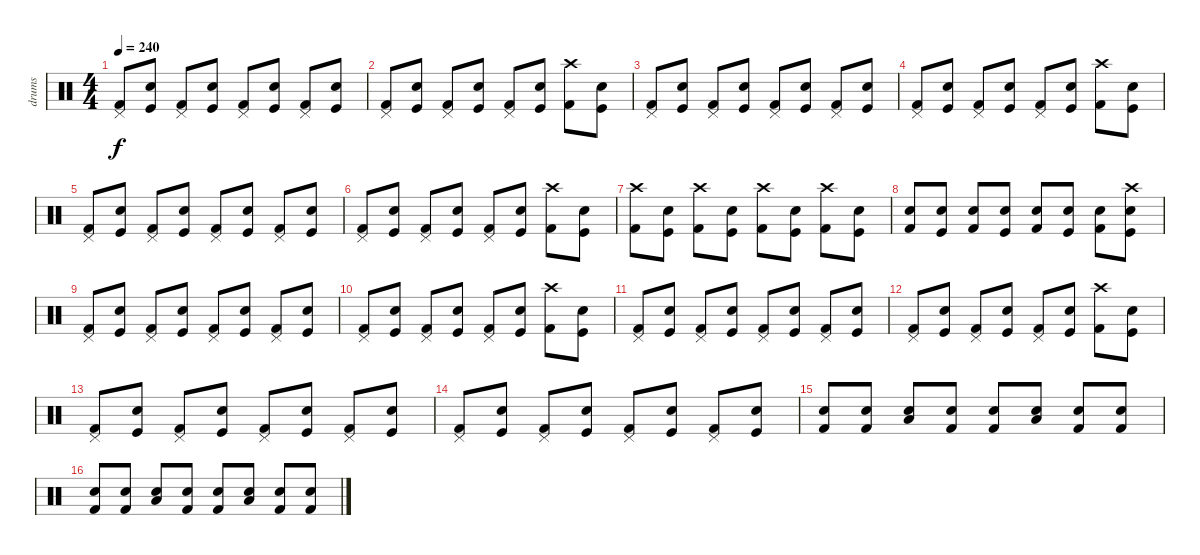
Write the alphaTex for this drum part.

\track ("drums" "drums") {instrument percussion}
\staff {score}
\articulation defaults
\ts (4 4)
\tempo 240
\clef neutral
\ks c
("Pedal Hi-Hat (hit)" "Kick (hit) 2").8{dy f} ("Electric Snare (hit)" "Kick (hit)").8 ("Pedal Hi-Hat (hit)" "Kick (hit) 2").8 ("Electric Snare (hit)" "Kick (hit)").8 ("Pedal Hi-Hat (hit)" "Kick (hit) 2").8 ("Electric Snare (hit)" "Kick (hit)").8 ("Pedal Hi-Hat (hit)" "Kick (hit) 2").8 ("Electric Snare (hit)" "Kick (hit)").8 |
("Pedal Hi-Hat (hit)" "Kick (hit) 2").8 ("Electric Snare (hit)" "Kick (hit)").8 ("Pedal Hi-Hat (hit)" "Kick (hit) 2").8 ("Electric Snare (hit)" "Kick (hit)").8 ("Pedal Hi-Hat (hit)" "Kick (hit) 2").8 ("Electric Snare (hit)" "Kick (hit)").8 ("Crash high (hit)" "Kick (hit) 2").8 ("Electric Snare (hit)" "Kick (hit)").8 |
("Pedal Hi-Hat (hit)" "Kick (hit) 2").8 ("Electric Snare (hit)" "Kick (hit)").8 ("Pedal Hi-Hat (hit)" "Kick (hit) 2").8 ("Electric Snare (hit)" "Kick (hit)").8 ("Pedal Hi-Hat (hit)" "Kick (hit) 2").8 ("Electric Snare (hit)" "Kick (hit)").8 ("Pedal Hi-Hat (hit)" "Kick (hit) 2").8 ("Electric Snare (hit)" "Kick (hit)").8 |
("Pedal Hi-Hat (hit)" "Kick (hit) 2").8 ("Electric Snare (hit)" "Kick (hit)").8 ("Pedal Hi-Hat (hit)" "Kick (hit) 2").8 ("Electric Snare (hit)" "Kick (hit)").8 ("Pedal Hi-Hat (hit)" "Kick (hit) 2").8 ("Electric Snare (hit)" "Kick (hit)").8 ("Crash high (hit)" "Kick (hit) 2").8 ("Electric Snare (hit)" "Kick (hit)").8 |
("Pedal Hi-Hat (hit)" "Kick (hit) 2").8 ("Electric Snare (hit)" "Kick (hit)").8 ("Pedal Hi-Hat (hit)" "Kick (hit) 2").8 ("Electric Snare (hit)" "Kick (hit)").8 ("Pedal Hi-Hat (hit)" "Kick (hit) 2").8 ("Electric Snare (hit)" "Kick (hit)").8 ("Pedal Hi-Hat (hit)" "Kick (hit) 2").8 ("Electric Snare (hit)" "Kick (hit)").8 |
("Pedal Hi-Hat (hit)" "Kick (hit) 2").8 ("Electric Snare (hit)" "Kick (hit)").8 ("Pedal Hi-Hat (hit)" "Kick (hit) 2").8 ("Electric Snare (hit)" "Kick (hit)").8 ("Pedal Hi-Hat (hit)" "Kick (hit) 2").8 ("Electric Snare (hit)" "Kick (hit)").8 ("Crash high (hit)" "Kick (hit) 2").8 ("Electric Snare (hit)" "Kick (hit)").8 |
("Crash high (hit)" "Kick (hit) 2").8 ("Electric Snare (hit)" "Kick (hit)").8 ("Crash high (hit)" "Kick (hit) 2").8 ("Electric Snare (hit)" "Kick (hit)").8 ("Crash high (hit)" "Kick (hit) 2").8 ("Electric Snare (hit)" "Kick (hit)").8 ("Crash high (hit)" "Kick (hit) 2").8 ("Electric Snare (hit)" "Kick (hit)").8 |
("Snare (hit) 2" "Kick (hit) 2").8 ("Electric Snare (hit)" "Kick (hit)").8 ("Snare (hit) 2" "Kick (hit) 2").8 ("Electric Snare (hit)" "Kick (hit)").8 ("Snare (hit) 2" "Kick (hit) 2").8 ("Electric Snare (hit)" "Kick (hit)").8 ("Snare (hit) 2" "Kick (hit) 2").8 ("Crash high (hit)" "Electric Snare (hit)" "Kick (hit)").8 |
("Pedal Hi-Hat (hit)" "Kick (hit) 2").8 ("Electric Snare (hit)" "Kick (hit)").8 ("Pedal Hi-Hat (hit)" "Kick (hit) 2").8 ("Electric Snare (hit)" "Kick (hit)").8 ("Pedal Hi-Hat (hit)" "Kick (hit) 2").8 ("Electric Snare (hit)" "Kick (hit)").8 ("Pedal Hi-Hat (hit)" "Kick (hit) 2").8 ("Electric Snare (hit)" "Kick (hit)").8 |
("Pedal Hi-Hat (hit)" "Kick (hit) 2").8 ("Electric Snare (hit)" "Kick (hit)").8 ("Pedal Hi-Hat (hit)" "Kick (hit) 2").8 ("Electric Snare (hit)" "Kick (hit)").8 ("Pedal Hi-Hat (hit)" "Kick (hit) 2").8 ("Electric Snare (hit)" "Kick (hit)").8 ("Crash high (hit)" "Kick (hit) 2").8 ("Electric Snare (hit)" "Kick (hit)").8 |
("Pedal Hi-Hat (hit)" "Kick (hit) 2").8 ("Electric Snare (hit)" "Kick (hit)").8 ("Pedal Hi-Hat (hit)" "Kick (hit) 2").8 ("Electric Snare (hit)" "Kick (hit)").8 ("Pedal Hi-Hat (hit)" "Kick (hit) 2").8 ("Electric Snare (hit)" "Kick (hit)").8 ("Pedal Hi-Hat (hit)" "Kick (hit) 2").8 ("Electric Snare (hit)" "Kick (hit)").8 |
("Pedal Hi-Hat (hit)" "Kick (hit) 2").8 ("Electric Snare (hit)" "Kick (hit)").8 ("Pedal Hi-Hat (hit)" "Kick (hit) 2").8 ("Electric Snare (hit)" "Kick (hit)").8 ("Pedal Hi-Hat (hit)" "Kick (hit) 2").8 ("Electric Snare (hit)" "Kick (hit)").8 ("Crash high (hit)" "Kick (hit) 2").8 ("Electric Snare (hit)" "Kick (hit)").8 |
("Pedal Hi-Hat (hit)" "Kick (hit) 2").8 ("Electric Snare (hit)" "Kick (hit)").8 ("Pedal Hi-Hat (hit)" "Kick (hit) 2").8 ("Electric Snare (hit)" "Kick (hit)").8 ("Pedal Hi-Hat (hit)" "Kick (hit) 2").8 ("Electric Snare (hit)" "Kick (hit)").8 ("Pedal Hi-Hat (hit)" "Kick (hit) 2").8 ("Electric Snare (hit)" "Kick (hit)").8 |
("Pedal Hi-Hat (hit)" "Kick (hit) 2").8 ("Electric Snare (hit)" "Kick (hit)").8 ("Pedal Hi-Hat (hit)" "Kick (hit) 2").8 ("Electric Snare (hit)" "Kick (hit)").8 ("Pedal Hi-Hat (hit)" "Kick (hit) 2").8 ("Electric Snare (hit)" "Kick (hit)").8 ("Pedal Hi-Hat (hit)" "Kick (hit) 2").8 ("Electric Snare (hit)" "Kick (hit)").8 |
("Electric Snare (hit)" "Kick (hit) 2").8 ("Electric Snare (hit)" "Kick (hit) 2").8 ("Low Tom (hit)" "Electric Snare (hit)").8 ("Snare (hit) 2" "Kick (hit) 2").8 ("Snare (hit) 2" "Kick (hit) 2").8 ("Low Tom (hit)" "Electric Snare (hit)").8 ("Snare (hit) 2" "Kick (hit) 2").8 ("Snare (hit) 2" "Kick (hit) 2").8 |
("Electric Snare (hit)" "Kick (hit) 2").8 ("Electric Snare (hit)" "Kick (hit) 2").8 ("Low Tom (hit)" "Electric Snare (hit)").8 ("Snare (hit) 2" "Kick (hit) 2").8 ("Snare (hit) 2" "Kick (hit) 2").8 ("Low Tom (hit)" "Electric Snare (hit)").8 ("Snare (hit) 2" "Kick (hit) 2").8 ("Snare (hit) 2" "Kick (hit) 2").8
